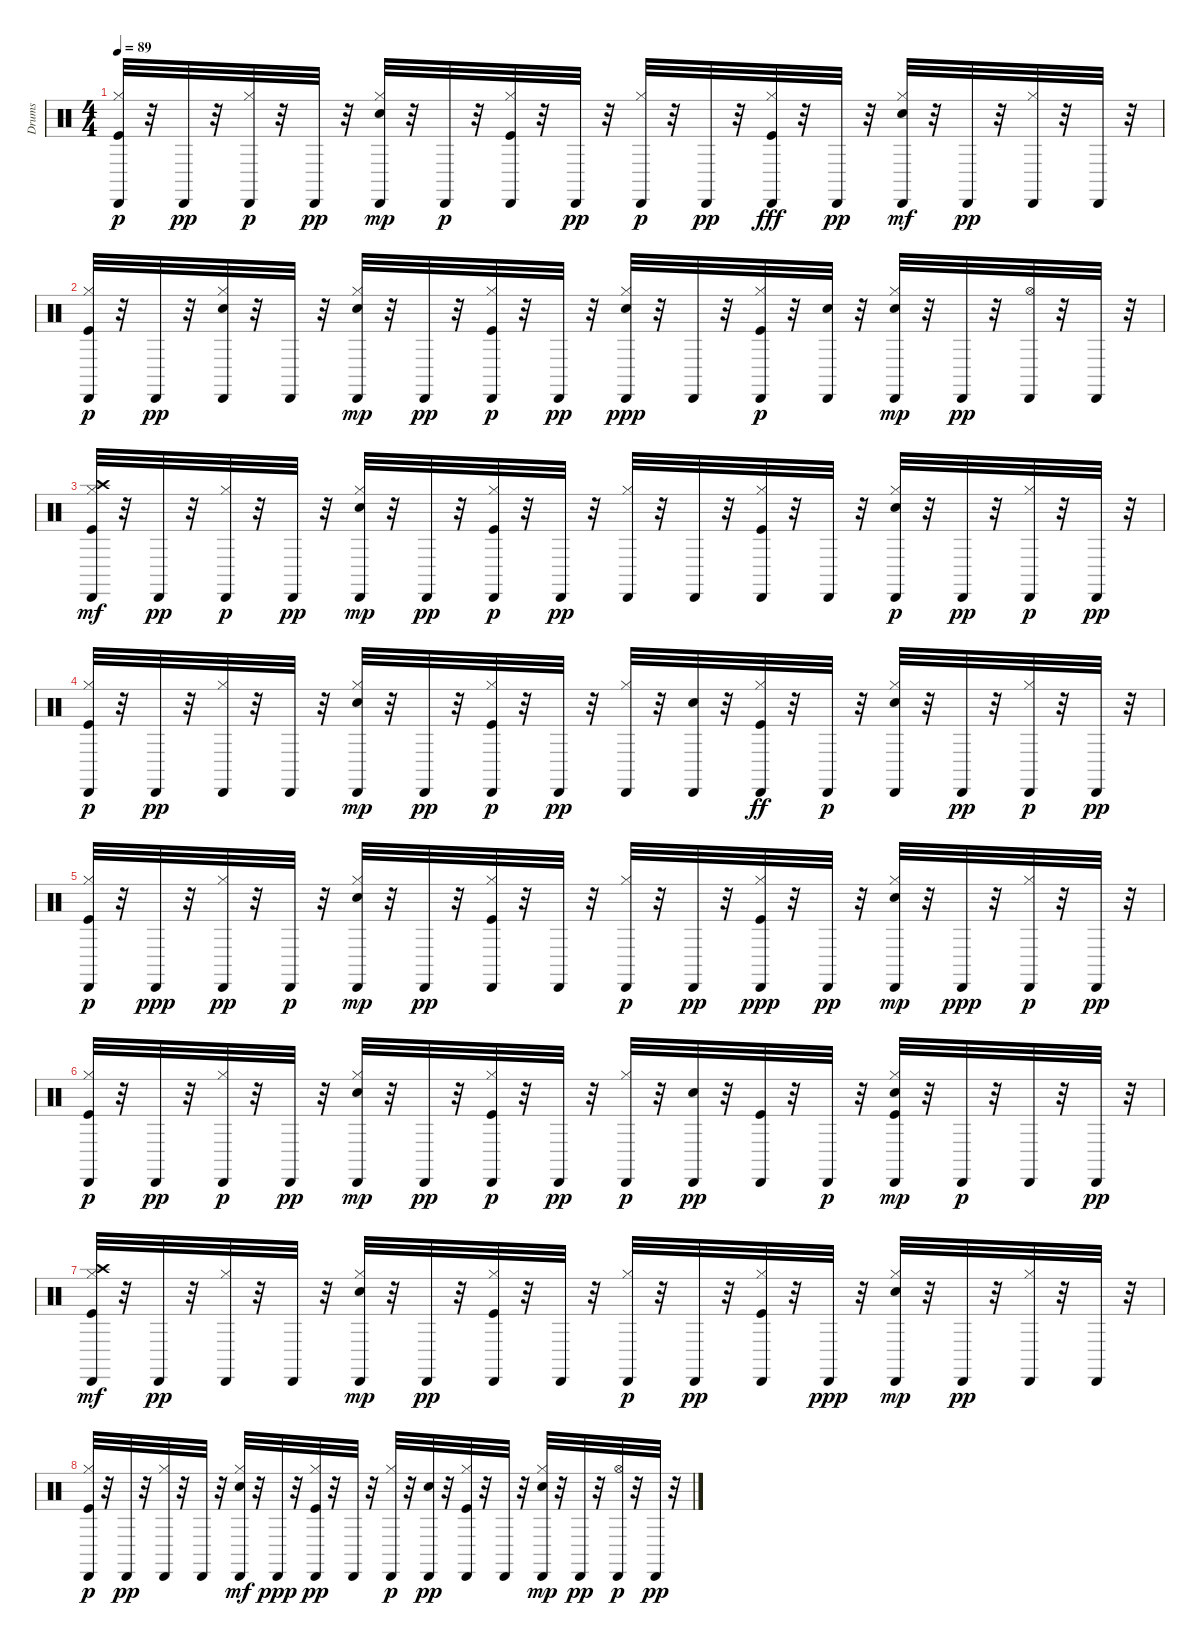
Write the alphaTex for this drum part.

\track ("Drums" "Drums") {instrument percussion}
\staff {score}
\articulation defaults
\ts (4 4)
\tempo 89
\clef neutral
\ks c
("Hi-Hat (closed)" "Kick (hit)" "Cabasa (hit)").32{dy p} r.32 "Cabasa (hit)".32{dy pp} r.32 ("Hi-Hat (closed)" "Cabasa (hit)").32{dy p} r.32 "Cabasa (hit)".32{dy pp} r.32 ("Electric Snare (hit)" "Hi-Hat (closed)" "Cabasa (hit)").32{dy mp} r.32 "Cabasa (hit)".32{dy p} r.32 ("Hi-Hat (closed)" "Kick (hit)" "Cabasa (hit)").32 r.32 "Cabasa (hit)".32{dy pp} r.32 ("Cabasa (hit)" "Hi-Hat (closed)").32{dy p} r.32 "Cabasa (hit)".32{dy pp} r.32 ("Cabasa (hit)" "Hi-Hat (closed)" "Kick (hit)").32{dy fff} r.32 "Cabasa (hit)".32{dy pp} r.32 ("Cabasa (hit)" "Electric Snare (hit)" "Hi-Hat (closed)").32{dy mf} r.32 "Cabasa (hit)".32{dy pp} r.32 ("Hi-Hat (closed)" "Cabasa (hit)").32 r.32 "Cabasa (hit)".32 r.32 |
("Hi-Hat (closed)" "Kick (hit)" "Cabasa (hit)").32{dy p} r.32 "Cabasa (hit)".32{dy pp} r.32 ("Electric Snare (hit)" "Hi-Hat (closed)" "Cabasa (hit)").32 r.32 "Cabasa (hit)".32 r.32 ("Hi-Hat (closed)" "Electric Snare (hit)" "Cabasa (hit)").32{dy mp} r.32 "Cabasa (hit)".32{dy pp} r.32 ("Kick (hit)" "Hi-Hat (closed)" "Cabasa (hit)").32{dy p} r.32 "Cabasa (hit)".32{dy pp} r.32 ("Electric Snare (hit)" "Hi-Hat (closed)" "Cabasa (hit)").32{dy ppp} r.32 "Cabasa (hit)".32 r.32 ("Hi-Hat (closed)" "Kick (hit)" "Cabasa (hit)").32{dy p} r.32 ("Electric Snare (hit)" "Cabasa (hit)").32 r.32 ("Electric Snare (hit)" "Hi-Hat (closed)" "Cabasa (hit)").32{dy mp} r.32 "Cabasa (hit)".32{dy pp} r.32 ("Hi-Hat (open)" "Cabasa (hit)").32 r.32 "Cabasa (hit)".32 r.32 |
("Kick (hit)" "Cabasa (hit)" "Hi-Hat (closed)" "Crash high (hit)").32{dy mf} r.32 "Cabasa (hit)".32{dy pp} r.32 ("Hi-Hat (closed)" "Cabasa (hit)").32{dy p} r.32 "Cabasa (hit)".32{dy pp} r.32 ("Electric Snare (hit)" "Hi-Hat (closed)" "Cabasa (hit)").32{dy mp} r.32 "Cabasa (hit)".32{dy pp} r.32 ("Hi-Hat (closed)" "Kick (hit)" "Cabasa (hit)").32{dy p} r.32 "Cabasa (hit)".32{dy pp} r.32 ("Hi-Hat (closed)" "Cabasa (hit)").32 r.32 "Cabasa (hit)".32 r.32 ("Kick (hit)" "Hi-Hat (closed)" "Cabasa (hit)").32 r.32 "Cabasa (hit)".32 r.32 ("Hi-Hat (closed)" "Electric Snare (hit)" "Cabasa (hit)").32{dy p} r.32 "Cabasa (hit)".32{dy pp} r.32 ("Hi-Hat (closed)" "Cabasa (hit)").32{dy p} r.32 "Cabasa (hit)".32{dy pp} r.32 |
("Kick (hit)" "Hi-Hat (closed)" "Cabasa (hit)").32{dy p} r.32 "Cabasa (hit)".32{dy pp} r.32 ("Hi-Hat (closed)" "Cabasa (hit)").32 r.32 "Cabasa (hit)".32 r.32 ("Electric Snare (hit)" "Hi-Hat (closed)" "Cabasa (hit)").32{dy mp} r.32 "Cabasa (hit)".32{dy pp} r.32 ("Kick (hit)" "Hi-Hat (closed)" "Cabasa (hit)").32{dy p} r.32 "Cabasa (hit)".32{dy pp} r.32 ("Hi-Hat (closed)" "Cabasa (hit)").32 r.32 ("Electric Snare (hit)" "Cabasa (hit)").32 r.32 ("Hi-Hat (closed)" "Cabasa (hit)" "Kick (hit)").32{dy ff} r.32 "Cabasa (hit)".32{dy p} r.32 ("Electric Snare (hit)" "Hi-Hat (closed)" "Cabasa (hit)").32 r.32 "Cabasa (hit)".32{dy pp} r.32 ("Hi-Hat (closed)" "Cabasa (hit)").32{dy p} r.32 "Cabasa (hit)".32{dy pp} r.32 |
("Hi-Hat (closed)" "Kick (hit)" "Cabasa (hit)").32{dy p} r.32 "Cabasa (hit)".32{dy ppp} r.32 ("Hi-Hat (closed)" "Cabasa (hit)").32{dy pp} r.32 "Cabasa (hit)".32{dy p} r.32 ("Hi-Hat (closed)" "Electric Snare (hit)" "Cabasa (hit)").32{dy mp} r.32 "Cabasa (hit)".32{dy pp} r.32 ("Hi-Hat (closed)" "Kick (hit)" "Cabasa (hit)").32 r.32 "Cabasa (hit)".32 r.32 ("Hi-Hat (closed)" "Cabasa (hit)").32{dy p} r.32 "Cabasa (hit)".32{dy pp} r.32 ("Kick (hit)" "Hi-Hat (closed)" "Cabasa (hit)").32{dy ppp} r.32 "Cabasa (hit)".32{dy pp} r.32 ("Electric Snare (hit)" "Hi-Hat (closed)" "Cabasa (hit)").32{dy mp} r.32 "Cabasa (hit)".32{dy ppp} r.32 ("Hi-Hat (closed)" "Cabasa (hit)").32{dy p} r.32 "Cabasa (hit)".32{dy pp} r.32 |
("Kick (hit)" "Hi-Hat (closed)" "Cabasa (hit)").32{dy p} r.32 "Cabasa (hit)".32{dy pp} r.32 ("Hi-Hat (closed)" "Cabasa (hit)").32{dy p} r.32 "Cabasa (hit)".32{dy pp} r.32 ("Electric Snare (hit)" "Hi-Hat (closed)" "Cabasa (hit)").32{dy mp} r.32 "Cabasa (hit)".32{dy pp} r.32 ("Hi-Hat (closed)" "Kick (hit)" "Cabasa (hit)").32{dy p} r.32 "Cabasa (hit)".32{dy pp} r.32 ("Hi-Hat (closed)" "Cabasa (hit)").32{dy p} r.32 ("Electric Snare (hit)" "Cabasa (hit)").32{dy pp} r.32 ("Kick (hit)" "Cabasa (hit)").32 r.32 "Cabasa (hit)".32{dy p} r.32 ("Electric Snare (hit)" "Kick (hit)" "Hi-Hat (closed)" "Cabasa (hit)").32{dy mp} r.32 "Cabasa (hit)".32{dy p} r.32 "Cabasa (hit)".32 r.32 "Cabasa (hit)".32{dy pp} r.32 |
("Hi-Hat (closed)" "Kick (hit)" "Cabasa (hit)" "Crash high (hit)").32{dy mf} r.32 "Cabasa (hit)".32{dy pp} r.32 ("Hi-Hat (closed)" "Cabasa (hit)").32 r.32 "Cabasa (hit)".32 r.32 ("Hi-Hat (closed)" "Electric Snare (hit)" "Cabasa (hit)").32{dy mp} r.32 "Cabasa (hit)".32{dy pp} r.32 ("Kick (hit)" "Hi-Hat (closed)" "Cabasa (hit)").32 r.32 "Cabasa (hit)".32 r.32 ("Hi-Hat (closed)" "Cabasa (hit)").32{dy p} r.32 "Cabasa (hit)".32{dy pp} r.32 ("Kick (hit)" "Hi-Hat (closed)" "Cabasa (hit)").32 r.32 "Cabasa (hit)".32{dy ppp} r.32 ("Electric Snare (hit)" "Hi-Hat (closed)" "Cabasa (hit)").32{dy mp} r.32 "Cabasa (hit)".32{dy pp} r.32 ("Hi-Hat (closed)" "Cabasa (hit)").32 r.32 "Cabasa (hit)".32 r.32 |
("Kick (hit)" "Hi-Hat (closed)" "Cabasa (hit)").32{dy p} r.32 "Cabasa (hit)".32{dy pp} r.32 ("Hi-Hat (closed)" "Cabasa (hit)").32 r.32 "Cabasa (hit)".32 r.32 ("Electric Snare (hit)" "Cabasa (hit)" "Hi-Hat (closed)").32{dy mf} r.32 "Cabasa (hit)".32{dy ppp} r.32 ("Hi-Hat (closed)" "Kick (hit)" "Cabasa (hit)").32{dy pp} r.32 "Cabasa (hit)".32 r.32 ("Hi-Hat (closed)" "Cabasa (hit)").32{dy p} r.32 ("Electric Snare (hit)" "Cabasa (hit)").32{dy pp} r.32 ("Kick (hit)" "Hi-Hat (closed)" "Cabasa (hit)").32 r.32 "Cabasa (hit)".32 r.32 ("Electric Snare (hit)" "Hi-Hat (closed)" "Cabasa (hit)").32{dy mp} r.32 "Cabasa (hit)".32{dy pp} r.32 ("Hi-Hat (open)" "Cabasa (hit)").32{dy p} r.32 "Cabasa (hit)".32{dy pp} r.32
